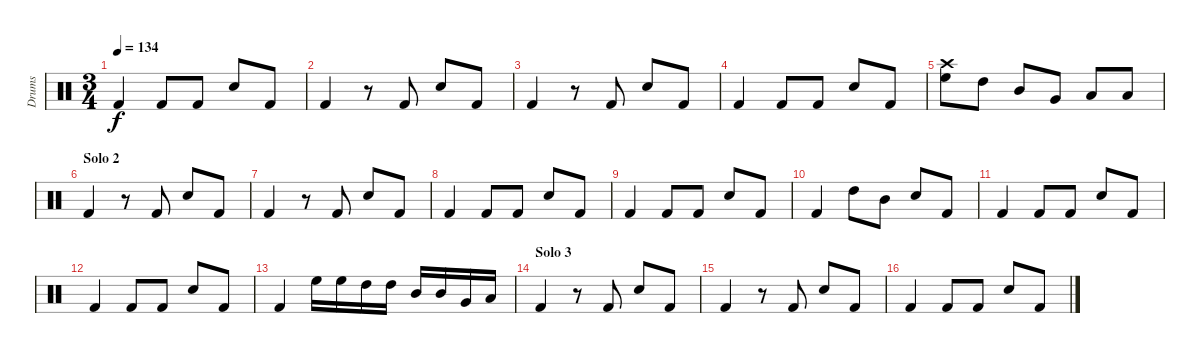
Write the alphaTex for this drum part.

\track ("Drums" "Drums") {instrument percussion}
\staff {score}
\articulation defaults
\ts (3 4)
\tempo 134
\clef neutral
\ks c "Kick (hit) 2".4{dy f} "Kick (hit) 2".8 "Kick (hit) 2".8 "Snare (hit) 2".8 "Kick (hit) 2".8
|
"Kick (hit) 2".4 r.8 "Kick (hit) 2".8 "Snare (hit) 2".8 "Kick (hit) 2".8 |
"Kick (hit) 2".4 r.8 "Kick (hit) 2".8 "Snare (hit) 2".8 "Kick (hit) 2".8 |
"Kick (hit) 2".4 "Kick (hit) 2".8 "Kick (hit) 2".8 "Snare (hit) 2".8 "Kick (hit) 2".8 |
("High Floor Tom (hit)" "Crash high (hit)").8 "High Tom (hit)".8 "Mid Tom (hit)".8 "Very Low Tom (hit)".8 "Low Floor Tom (hit)".8 "Low Floor Tom (hit)".8 |
\section ("" "Solo 2")
"Kick (hit) 2".4 r.8 "Kick (hit) 2".8 "Snare (hit) 2".8 "Kick (hit) 2".8 |
"Kick (hit) 2".4 r.8 "Kick (hit) 2".8 "Snare (hit) 2".8 "Kick (hit) 2".8 |
"Kick (hit) 2".4 "Kick (hit) 2".8 "Kick (hit) 2".8 "Snare (hit) 2".8 "Kick (hit) 2".8 |
"Kick (hit) 2".4 "Kick (hit) 2".8 "Kick (hit) 2".8 "Snare (hit) 2".8 "Kick (hit) 2".8 |
"Kick (hit) 2".4 "High Tom (hit)".8 "Mid Tom (hit)".8 "Snare (hit) 2".8 "Kick (hit) 2".8 |
"Kick (hit) 2".4 "Kick (hit) 2".8 "Kick (hit) 2".8 "Snare (hit) 2".8 "Kick (hit) 2".8 |
"Kick (hit) 2".4 "Kick (hit) 2".8 "Kick (hit) 2".8 "Snare (hit) 2".8 "Kick (hit) 2".8 |
"Kick (hit) 2".4 "High Floor Tom (hit)".16 "High Floor Tom (hit)".16 "High Tom (hit)".16 "High Tom (hit)".16 "Mid Tom (hit)".16 "Mid Tom (hit)".16 "Very Low Tom (hit)".16 "Low Floor Tom (hit)".16 |
\section ("" "Solo 3")
"Kick (hit) 2".4 r.8 "Kick (hit) 2".8 "Snare (hit) 2".8 "Kick (hit) 2".8 |
"Kick (hit) 2".4 r.8 "Kick (hit) 2".8 "Snare (hit) 2".8 "Kick (hit) 2".8 |
"Kick (hit) 2".4 "Kick (hit) 2".8 "Kick (hit) 2".8 "Snare (hit) 2".8 "Kick (hit) 2".8
